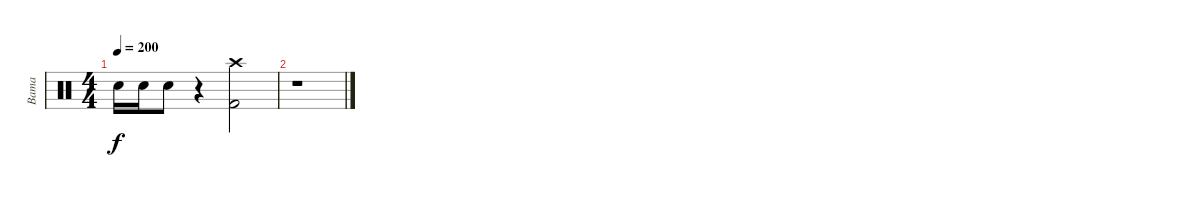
\track ("Bama" "Bama") {instrument percussion}
\staff {score}
\articulation defaults
\ts (4 4)
\tempo 200
\clef neutral
\ks c "Electric Snare (hit)".16{dy f} "Electric Snare (hit)".16 "Electric Snare (hit)".8
r.4 ("Crash high (hit)" "Kick (hit) 2").2 |
r.1
